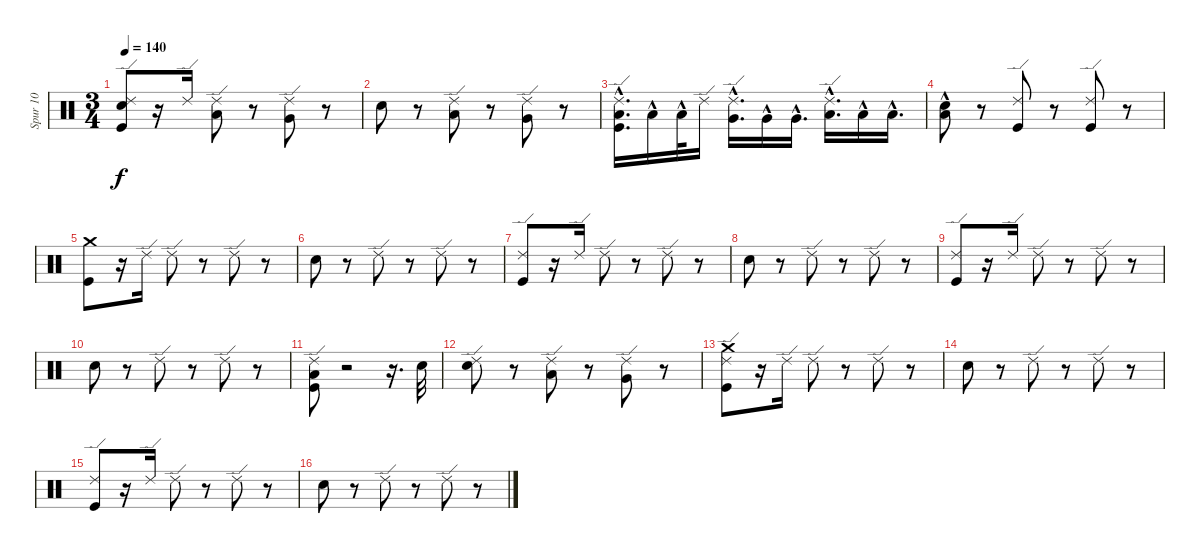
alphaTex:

\track ("Spur 10" "Spur 10") {instrument percussion}
\staff {score}
\articulation defaults
\ts (3 4)
\tempo 140
\clef neutral
\ks c
("Snare (hit) 2" "Ride (edge) 2" "Kick (hit)").8{dy f} r.16 "Ride (edge) 2".16 ("Low Tom (hit)" "Ride (edge) 2").8 r.8 ("Very Low Tom (hit)" "Ride (edge) 2").8 r.8 |
"Snare (hit) 2".8 r.8 ("Low Tom (hit)" "Ride (edge) 2").8 r.8 ("Very Low Tom (hit)" "Ride (edge) 2").8 r.8 |
("Low Tom (hit)"{hac} "Ride (edge) 2" "Kick (hit)").16{d} "Low Tom (hit)"{hac}.16 "Low Tom (hit)"{hac}.32 "Ride (edge) 2".16 ("Very Low Tom (hit)"{hac} "Ride (edge) 2").16{d} "Very Low Tom (hit)"{hac}.16 "Very Low Tom (hit)"{hac}.16{d} ("Low Floor Tom (hit)"{hac} "Ride (edge) 2").16{d} "Low Floor Tom (hit)"{hac}.16 "Low Floor Tom (hit)"{hac}.16{d} |
("Low Tom (hit)"{hac} "Snare (hit) 2").8 r.8 ("Kick (hit)" "Ride (edge) 2").8 r.8 ("Kick (hit)" "Ride (edge) 2").8 r.8 |
("Kick (hit)" "Crash medium (hit)").8 r.16 "Ride (edge) 2".16 "Ride (edge) 2".8 r.8 "Ride (edge) 2".8 r.8 |
"Snare (hit) 2".8 r.8 "Ride (edge) 2".8 r.8 "Ride (edge) 2".8 r.8 |
("Ride (edge) 2" "Kick (hit)").8 r.16 "Ride (edge) 2".16 "Ride (edge) 2".8 r.8 "Ride (edge) 2".8 r.8 |
"Snare (hit) 2".8 r.8 "Ride (edge) 2".8 r.8 "Ride (edge) 2".8 r.8 |
("Ride (edge) 2" "Kick (hit)").8 r.16 "Ride (edge) 2".16 "Ride (edge) 2".8 r.8 "Ride (edge) 2".8 r.8 |
"Snare (hit) 2".8 r.8 "Ride (edge) 2".8 r.8 "Ride (edge) 2".8 r.8 |
("Low Floor Tom (hit)" "Ride (edge) 2" "Kick (hit)").8 r.2 r.16{d} "Snare (hit) 2".32 |
("Ride (edge) 2" "Snare (hit) 2").8 r.8 ("Low Tom (hit)" "Ride (edge) 2").8 r.8 ("Very Low Tom (hit)" "Ride (edge) 2").8 r.8 |
("Crash medium (hit)" "Ride (edge) 2" "Kick (hit)").8 r.16 "Ride (edge) 2".16 "Ride (edge) 2".8 r.8 "Ride (edge) 2".8 r.8 |
"Snare (hit) 2".8 r.8 "Ride (edge) 2".8 r.8 "Ride (edge) 2".8 r.8 |
("Ride (edge) 2" "Kick (hit)").8 r.16 "Ride (edge) 2".16 "Ride (edge) 2".8 r.8 "Ride (edge) 2".8 r.8 |
"Snare (hit) 2".8 r.8 "Ride (edge) 2".8 r.8 "Ride (edge) 2".8 r.8
